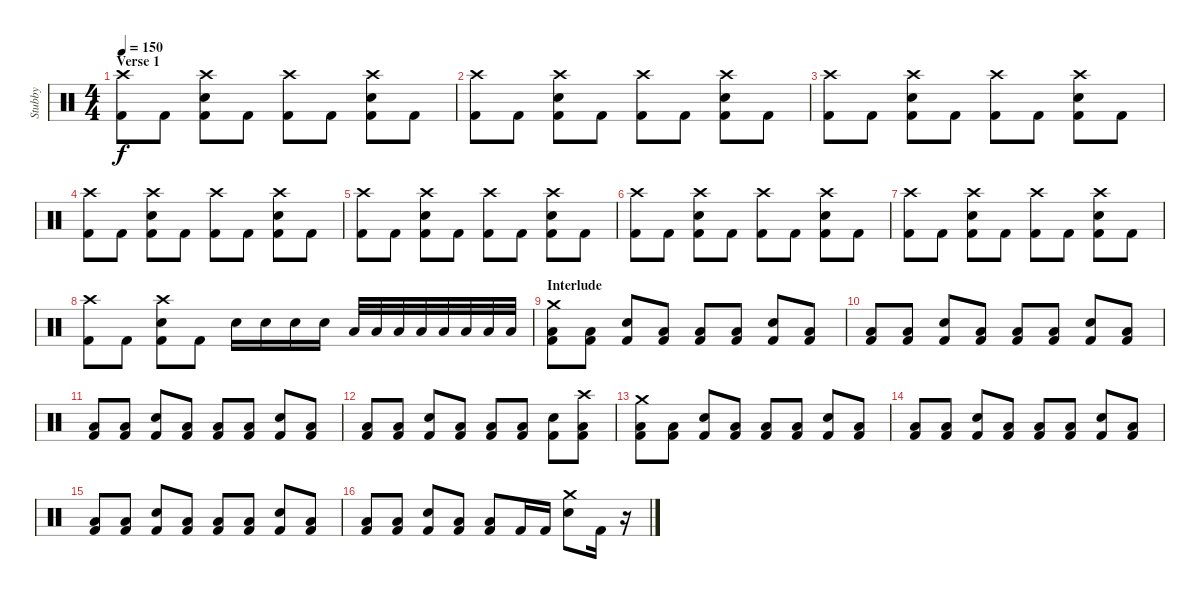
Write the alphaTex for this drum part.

\track ("Stubby" "Stubby") {instrument percussion}
\staff {score}
\articulation defaults
\ts (4 4)
\section ("" "Verse 1")
\tempo 150
\clef neutral
\ks c
("Crash high (hit)" "Kick (hit) 2").8{dy f} "Kick (hit) 2".8 ("Crash high (hit)" "Snare (hit) 2" "Kick (hit) 2").8 "Kick (hit) 2".8 ("Crash high (hit)" "Kick (hit) 2").8 "Kick (hit) 2".8 ("Crash high (hit)" "Snare (hit) 2" "Kick (hit) 2").8 "Kick (hit) 2".8 |
("Crash high (hit)" "Kick (hit) 2").8 "Kick (hit) 2".8 ("Crash high (hit)" "Snare (hit) 2" "Kick (hit) 2").8 "Kick (hit) 2".8 ("Crash high (hit)" "Kick (hit) 2").8 "Kick (hit) 2".8 ("Crash high (hit)" "Snare (hit) 2" "Kick (hit) 2").8 "Kick (hit) 2".8 |
("Crash high (hit)" "Kick (hit) 2").8 "Kick (hit) 2".8 ("Crash high (hit)" "Snare (hit) 2" "Kick (hit) 2").8 "Kick (hit) 2".8 ("Crash high (hit)" "Kick (hit) 2").8 "Kick (hit) 2".8 ("Crash high (hit)" "Snare (hit) 2" "Kick (hit) 2").8 "Kick (hit) 2".8 |
("Crash high (hit)" "Kick (hit) 2").8 "Kick (hit) 2".8 ("Crash high (hit)" "Snare (hit) 2" "Kick (hit) 2").8 "Kick (hit) 2".8 ("Crash high (hit)" "Kick (hit) 2").8 "Kick (hit) 2".8 ("Crash high (hit)" "Snare (hit) 2" "Kick (hit) 2").8 "Kick (hit) 2".8 |
("Crash high (hit)" "Kick (hit) 2").8 "Kick (hit) 2".8 ("Crash high (hit)" "Snare (hit) 2" "Kick (hit) 2").8 "Kick (hit) 2".8 ("Crash high (hit)" "Kick (hit) 2").8 "Kick (hit) 2".8 ("Crash high (hit)" "Snare (hit) 2" "Kick (hit) 2").8 "Kick (hit) 2".8 |
("Crash high (hit)" "Kick (hit) 2").8 "Kick (hit) 2".8 ("Crash high (hit)" "Snare (hit) 2" "Kick (hit) 2").8 "Kick (hit) 2".8 ("Crash high (hit)" "Kick (hit) 2").8 "Kick (hit) 2".8 ("Crash high (hit)" "Snare (hit) 2" "Kick (hit) 2").8 "Kick (hit) 2".8 |
("Crash high (hit)" "Kick (hit) 2").8 "Kick (hit) 2".8 ("Crash high (hit)" "Snare (hit) 2" "Kick (hit) 2").8 "Kick (hit) 2".8 ("Crash high (hit)" "Kick (hit) 2").8 "Kick (hit) 2".8 ("Crash high (hit)" "Snare (hit) 2" "Kick (hit) 2").8 "Kick (hit) 2".8 |
("Crash high (hit)" "Kick (hit) 2").8 "Kick (hit) 2".8 ("Crash high (hit)" "Snare (hit) 2" "Kick (hit) 2").8 "Kick (hit) 2".8 "Snare (hit) 2".16 "Snare (hit) 2".16 "Snare (hit) 2".16 "Snare (hit) 2".16 "Low Tom (hit)".32 "Low Tom (hit)".32 "Low Tom (hit)".32 "Low Tom (hit)".32 "Low Floor Tom (hit)".32 "Low Floor Tom (hit)".32 "Low Floor Tom (hit)".32 "Low Floor Tom (hit)".32 |
\section ("" "Interlude")
("Crash medium (hit)" "Low Floor Tom (hit)" "Kick (hit) 2").8 ("Low Floor Tom (hit)" "Kick (hit) 2").8 ("Snare (hit) 2" "Kick (hit) 2").8 ("Low Floor Tom (hit)" "Kick (hit) 2").8 ("Low Floor Tom (hit)" "Kick (hit) 2").8 ("Low Floor Tom (hit)" "Kick (hit) 2").8 ("Snare (hit) 2" "Kick (hit) 2").8 ("Low Floor Tom (hit)" "Kick (hit) 2").8 |
("Low Floor Tom (hit)" "Kick (hit) 2").8 ("Low Floor Tom (hit)" "Kick (hit) 2").8 ("Snare (hit) 2" "Kick (hit) 2").8 ("Low Floor Tom (hit)" "Kick (hit) 2").8 ("Low Floor Tom (hit)" "Kick (hit) 2").8 ("Low Floor Tom (hit)" "Kick (hit) 2").8 ("Snare (hit) 2" "Kick (hit) 2").8 ("Low Floor Tom (hit)" "Kick (hit) 2").8 |
("Low Floor Tom (hit)" "Kick (hit) 2").8 ("Low Floor Tom (hit)" "Kick (hit) 2").8 ("Snare (hit) 2" "Kick (hit) 2").8 ("Low Floor Tom (hit)" "Kick (hit) 2").8 ("Low Floor Tom (hit)" "Kick (hit) 2").8 ("Low Floor Tom (hit)" "Kick (hit) 2").8 ("Snare (hit) 2" "Kick (hit) 2").8 ("Low Floor Tom (hit)" "Kick (hit) 2").8 |
("Low Floor Tom (hit)" "Kick (hit) 2").8 ("Low Floor Tom (hit)" "Kick (hit) 2").8 ("Snare (hit) 2" "Kick (hit) 2").8 ("Low Floor Tom (hit)" "Kick (hit) 2").8 ("Low Floor Tom (hit)" "Kick (hit) 2").8 ("Low Floor Tom (hit)" "Kick (hit) 2").8 ("Snare (hit) 2" "Kick (hit) 2").8 ("Crash high (hit)" "Low Floor Tom (hit)" "Kick (hit) 2").8 |
("Crash medium (hit)" "Low Floor Tom (hit)" "Kick (hit) 2").8 ("Low Floor Tom (hit)" "Kick (hit) 2").8 ("Snare (hit) 2" "Kick (hit) 2").8 ("Low Floor Tom (hit)" "Kick (hit) 2").8 ("Low Floor Tom (hit)" "Kick (hit) 2").8 ("Low Floor Tom (hit)" "Kick (hit) 2").8 ("Snare (hit) 2" "Kick (hit) 2").8 ("Low Floor Tom (hit)" "Kick (hit) 2").8 |
("Low Floor Tom (hit)" "Kick (hit) 2").8 ("Low Floor Tom (hit)" "Kick (hit) 2").8 ("Snare (hit) 2" "Kick (hit) 2").8 ("Low Floor Tom (hit)" "Kick (hit) 2").8 ("Low Floor Tom (hit)" "Kick (hit) 2").8 ("Low Floor Tom (hit)" "Kick (hit) 2").8 ("Snare (hit) 2" "Kick (hit) 2").8 ("Low Floor Tom (hit)" "Kick (hit) 2").8 |
("Low Floor Tom (hit)" "Kick (hit) 2").8 ("Low Floor Tom (hit)" "Kick (hit) 2").8 ("Snare (hit) 2" "Kick (hit) 2").8 ("Low Floor Tom (hit)" "Kick (hit) 2").8 ("Low Floor Tom (hit)" "Kick (hit) 2").8 ("Low Floor Tom (hit)" "Kick (hit) 2").8 ("Snare (hit) 2" "Kick (hit) 2").8 ("Low Floor Tom (hit)" "Kick (hit) 2").8 |
("Low Floor Tom (hit)" "Kick (hit) 2").8 ("Low Floor Tom (hit)" "Kick (hit) 2").8 ("Snare (hit) 2" "Kick (hit) 2").8 ("Low Floor Tom (hit)" "Kick (hit) 2").8 ("Low Floor Tom (hit)" "Kick (hit) 2").8 "Kick (hit) 2".16 "Kick (hit) 2".16 ("Crash medium (hit)" "Snare (hit) 2").8 "Kick (hit) 2".16 r.16
